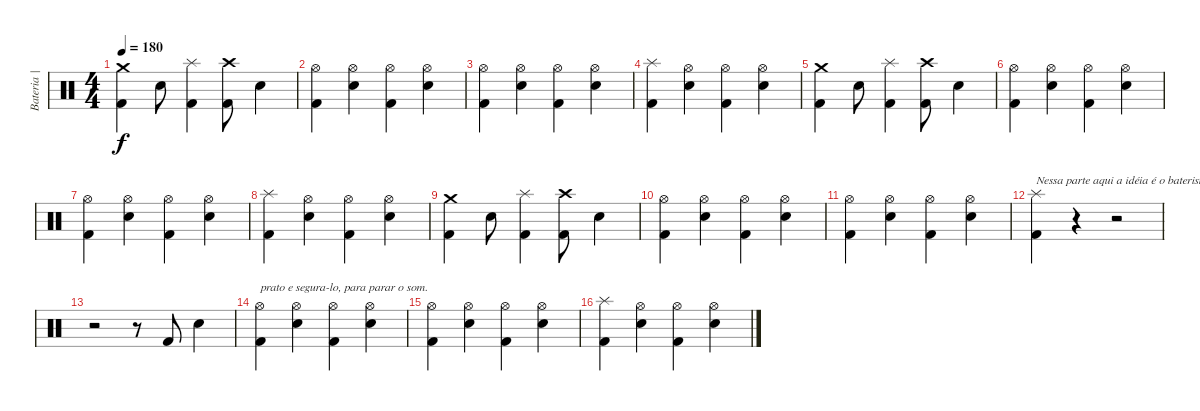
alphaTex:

\track ("Bateria | Fábio" "Bateria | ") {instrument percussion}
\staff {score}
\articulation defaults
\ts (4 4)
\tempo 180
\clef neutral
\ks c
("Crash medium (hit)" "Kick (hit) 2").4{dy f} "Snare (hit) 2".8 ("Splash (hit)" "Kick (hit) 2").4 ("Crash high (hit)" "Kick (hit) 2").8 "Snare (hit) 2".4 |
("Hi-Hat (open)" "Kick (hit) 2").4 ("Hi-Hat (open)" "Snare (hit) 2").4 ("Hi-Hat (open)" "Kick (hit) 2").4 ("Hi-Hat (open)" "Snare (hit) 2").4 |
("Hi-Hat (open)" "Kick (hit) 2").4 ("Hi-Hat (open)" "Snare (hit) 2").4 ("Hi-Hat (open)" "Kick (hit) 2").4 ("Hi-Hat (open)" "Snare (hit) 2").4 |
("Splash (hit)" "Kick (hit) 2").4 ("Hi-Hat (open)" "Snare (hit) 2").4 ("Hi-Hat (open)" "Kick (hit) 2").4 ("Hi-Hat (open)" "Snare (hit) 2").4 |
("Crash medium (hit)" "Kick (hit) 2").4 "Snare (hit) 2".8 ("Splash (hit)" "Kick (hit) 2").4 ("Crash high (hit)" "Kick (hit) 2").8 "Snare (hit) 2".4 |
("Hi-Hat (open)" "Kick (hit) 2").4 ("Hi-Hat (open)" "Snare (hit) 2").4 ("Hi-Hat (open)" "Kick (hit) 2").4 ("Hi-Hat (open)" "Snare (hit) 2").4 |
("Hi-Hat (open)" "Kick (hit) 2").4 ("Hi-Hat (open)" "Snare (hit) 2").4 ("Hi-Hat (open)" "Kick (hit) 2").4 ("Hi-Hat (open)" "Snare (hit) 2").4 |
("Splash (hit)" "Kick (hit) 2").4 ("Hi-Hat (open)" "Snare (hit) 2").4 ("Hi-Hat (open)" "Kick (hit) 2").4 ("Hi-Hat (open)" "Snare (hit) 2").4 |
("Crash medium (hit)" "Kick (hit) 2").4 "Snare (hit) 2".8 ("Splash (hit)" "Kick (hit) 2").4 ("Crash high (hit)" "Kick (hit) 2").8 "Snare (hit) 2".4 |
("Hi-Hat (open)" "Kick (hit) 2").4 ("Hi-Hat (open)" "Snare (hit) 2").4 ("Hi-Hat (open)" "Kick (hit) 2").4 ("Hi-Hat (open)" "Snare (hit) 2").4 |
("Hi-Hat (open)" "Kick (hit) 2").4 ("Hi-Hat (open)" "Snare (hit) 2").4 ("Hi-Hat (open)" "Kick (hit) 2").4 ("Hi-Hat (open)" "Snare (hit) 2").4 |
("Splash (hit)" "Kick (hit) 2").4{txt "Nessa parte aqui a idéia é o baterista bater no"} r.4{volume 0} r.2 |
r.2 r.8 "Kick (hit) 2".8{volume 16} "Snare (hit) 2".4 |
("Hi-Hat (open)" "Kick (hit) 2").4{txt "prato e segura-lo, para parar o som."} ("Hi-Hat (open)" "Snare (hit) 2").4 ("Hi-Hat (open)" "Kick (hit) 2").4 ("Hi-Hat (open)" "Snare (hit) 2").4 |
("Hi-Hat (open)" "Kick (hit) 2").4 ("Hi-Hat (open)" "Snare (hit) 2").4 ("Hi-Hat (open)" "Kick (hit) 2").4 ("Hi-Hat (open)" "Snare (hit) 2").4 |
("Splash (hit)" "Kick (hit) 2").4 ("Hi-Hat (open)" "Snare (hit) 2").4 ("Hi-Hat (open)" "Kick (hit) 2").4 ("Hi-Hat (open)" "Snare (hit) 2").4
